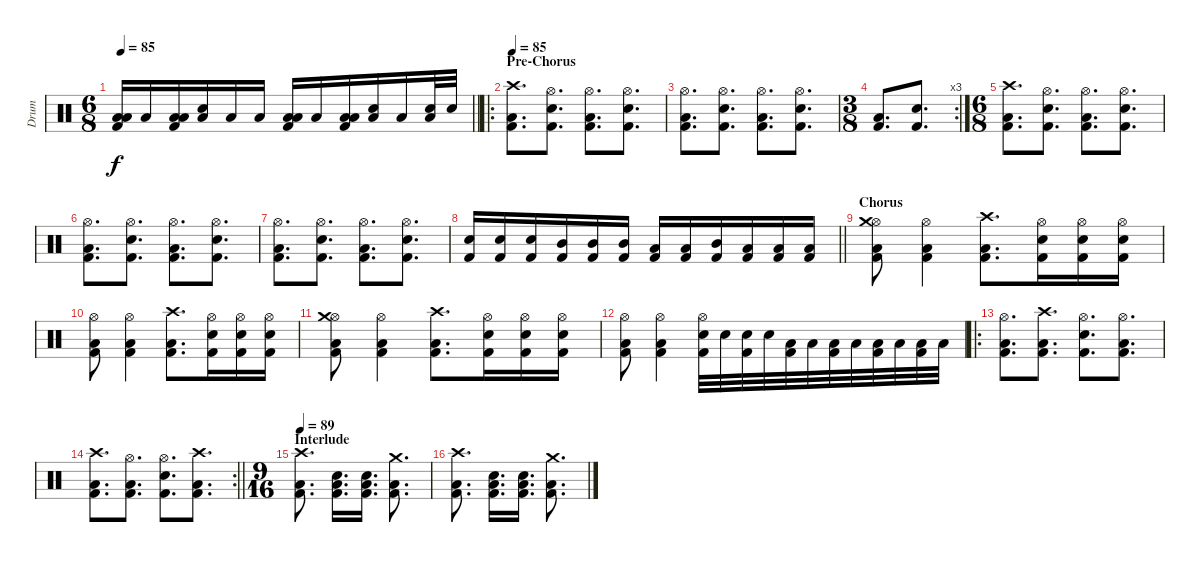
\track ("Drum" "Drum") {instrument percussion}
\staff {score}
\articulation defaults
\ts (6 8)
\tempo 85
\clef neutral
\barLineRight lightlight
\ks c
("Low Floor Tom (hit)" "Low Tom (hit)" "Kick (hit) 2").16{dy f} "Low Tom (hit)".16 ("Low Floor Tom (hit)" "Low Tom (hit)" "Kick (hit) 2").16 ("Low Tom (hit)" "Electric Snare (hit)").16 "Low Tom (hit)".16 "Low Tom (hit)".16 ("Low Floor Tom (hit)" "Low Tom (hit)" "Kick (hit) 2").16 "Low Tom (hit)".16 ("Low Floor Tom (hit)" "Low Tom (hit)" "Kick (hit) 2").16 ("Low Tom (hit)" "Electric Snare (hit)").16 "Low Tom (hit)".16 ("Low Tom (hit)" "Electric Snare (hit)").32 "Electric Snare (hit)".32 |
\ro
\section ("" "Pre-Chorus")
\tempo 85
("Crash high (hit)" "Low Floor Tom (hit)" "Kick (hit) 2").8{d} ("Hi-Hat (open)" "Electric Snare (hit)" "Kick (hit) 2").8{d} ("Hi-Hat (open)" "Low Floor Tom (hit)" "Kick (hit) 2").8{d} ("Hi-Hat (open)" "Electric Snare (hit)" "Kick (hit) 2").8{d} |
("Hi-Hat (open)" "Low Floor Tom (hit)" "Kick (hit) 2").8{d} ("Hi-Hat (open)" "Electric Snare (hit)" "Kick (hit) 2").8{d} ("Hi-Hat (open)" "Low Floor Tom (hit)" "Kick (hit) 2").8{d} ("Hi-Hat (open)" "Electric Snare (hit)" "Kick (hit) 2").8{d} |
\rc 3
\ts (3 8)
("Low Floor Tom (hit)" "Kick (hit) 2").8{d} ("Electric Snare (hit)" "Kick (hit) 2").8{d} |
\ts (6 8)
("Crash high (hit)" "Low Floor Tom (hit)" "Kick (hit) 2").8{d} ("Hi-Hat (open)" "Electric Snare (hit)" "Kick (hit) 2").8{d} ("Hi-Hat (open)" "Low Floor Tom (hit)" "Kick (hit) 2").8{d} ("Hi-Hat (open)" "Electric Snare (hit)" "Kick (hit) 2").8{d} |
("Hi-Hat (open)" "Low Floor Tom (hit)" "Kick (hit) 2").8{d} ("Hi-Hat (open)" "Electric Snare (hit)" "Kick (hit) 2").8{d} ("Hi-Hat (open)" "Low Floor Tom (hit)" "Kick (hit) 2").8{d} ("Hi-Hat (open)" "Electric Snare (hit)" "Kick (hit) 2").8{d} |
("Hi-Hat (open)" "Low Floor Tom (hit)" "Kick (hit) 2").8{d} ("Hi-Hat (open)" "Electric Snare (hit)" "Kick (hit) 2").8{d} ("Hi-Hat (open)" "Low Floor Tom (hit)" "Kick (hit) 2").8{d} ("Hi-Hat (open)" "Electric Snare (hit)" "Kick (hit) 2").8{d} |
\barLineRight lightlight
("Electric Snare (hit)" "Kick (hit) 2").16 ("Electric Snare (hit)" "Kick (hit) 2").16 ("Electric Snare (hit)" "Kick (hit) 2").16 ("Mid Tom (hit)" "Kick (hit) 2").16 ("Mid Tom (hit)" "Kick (hit) 2").16 ("Mid Tom (hit)" "Kick (hit) 2").16 ("Low Tom (hit)" "Kick (hit) 2").16 ("Low Tom (hit)" "Kick (hit) 2").16 ("Mid Tom (hit)" "Kick (hit) 2").16 ("Low Floor Tom (hit)" "Kick (hit) 2").16 ("Low Floor Tom (hit)" "Kick (hit) 2").16 ("Low Floor Tom (hit)" "Kick (hit) 2").16 |
\section ("" "Chorus")
("Hi-Hat (open)" "Low Floor Tom (hit)" "Crash medium (hit)" "Kick (hit) 2").8 ("Hi-Hat (open)" "Low Floor Tom (hit)" "Kick (hit) 2").4 ("Crash high (hit)" "Low Floor Tom (hit)" "Kick (hit) 2").8{d} ("Hi-Hat (open)" "Electric Snare (hit)" "Kick (hit) 2").16 ("Hi-Hat (open)" "Electric Snare (hit)" "Kick (hit) 2").16 ("Hi-Hat (open)" "Electric Snare (hit)" "Kick (hit) 2").16 |
("Hi-Hat (open)" "Low Floor Tom (hit)" "Kick (hit) 2").8 ("Hi-Hat (open)" "Low Floor Tom (hit)" "Kick (hit) 2").4 ("Crash high (hit)" "Low Floor Tom (hit)" "Kick (hit) 2").8{d} ("Hi-Hat (open)" "Electric Snare (hit)" "Kick (hit) 2").16 ("Hi-Hat (open)" "Electric Snare (hit)" "Kick (hit) 2").16 ("Hi-Hat (open)" "Electric Snare (hit)" "Kick (hit) 2").16 |
("Hi-Hat (open)" "Low Floor Tom (hit)" "Crash medium (hit)" "Kick (hit) 2").8 ("Hi-Hat (open)" "Low Floor Tom (hit)" "Kick (hit) 2").4 ("Crash high (hit)" "Low Floor Tom (hit)" "Kick (hit) 2").8{d} ("Hi-Hat (open)" "Electric Snare (hit)" "Kick (hit) 2").16 ("Hi-Hat (open)" "Electric Snare (hit)" "Kick (hit) 2").16 ("Hi-Hat (open)" "Electric Snare (hit)" "Kick (hit) 2").16 |
("Hi-Hat (open)" "Low Floor Tom (hit)" "Kick (hit) 2").8 ("Hi-Hat (open)" "Low Floor Tom (hit)" "Kick (hit) 2").4 ("Hi-Hat (open)" "Electric Snare (hit)" "Kick (hit) 2").32 "Electric Snare (hit)".32 ("Electric Snare (hit)" "Kick (hit) 2").32 "Electric Snare (hit)".32 ("Low Tom (hit)" "Kick (hit) 2").32 "Low Tom (hit)".32 ("Low Tom (hit)" "Kick (hit) 2").32 "Low Tom (hit)".32 ("Low Floor Tom (hit)" "Kick (hit) 2").32 "Low Floor Tom (hit)".32 ("Low Floor Tom (hit)" "Kick (hit) 2").32 "Low Floor Tom (hit)".32 |
\ro
("Hi-Hat (open)" "Low Floor Tom (hit)" "Kick (hit) 2").8{d} ("Crash high (hit)" "Low Floor Tom (hit)" "Kick (hit) 2").8{d} ("Hi-Hat (open)" "Electric Snare (hit)" "Kick (hit) 2").8{d} ("Hi-Hat (open)" "Low Floor Tom (hit)" "Kick (hit) 2").8{d} |
\rc 2
\barLineRight lightlight
("Crash high (hit)" "Low Floor Tom (hit)" "Kick (hit) 2").8{d} ("Hi-Hat (open)" "Low Floor Tom (hit)" "Kick (hit) 2").8{d} ("Hi-Hat (open)" "Electric Snare (hit)" "Kick (hit) 2").8{d} ("Crash high (hit)" "Low Floor Tom (hit)" "Kick (hit) 2").8{d} |
\ts (9 16)
\section ("" "Interlude")
\tempo 89
("Crash high (hit)" "Low Tom (hit)" "Kick (hit) 2").8{d} ("Low Tom (hit)" "Electric Snare (hit)" "Kick (hit) 2").16{d} ("Low Tom (hit)" "Electric Snare (hit)" "Kick (hit) 2").16{d} ("Crash medium (hit)" "Low Tom (hit)" "Kick (hit) 2").8{d} |
("Crash high (hit)" "Low Tom (hit)" "Kick (hit) 2").8{d} ("Low Tom (hit)" "Electric Snare (hit)" "Kick (hit) 2").16{d} ("Low Tom (hit)" "Electric Snare (hit)" "Kick (hit) 2").16{d} ("Crash medium (hit)" "Low Tom (hit)" "Kick (hit) 2").8{d}
